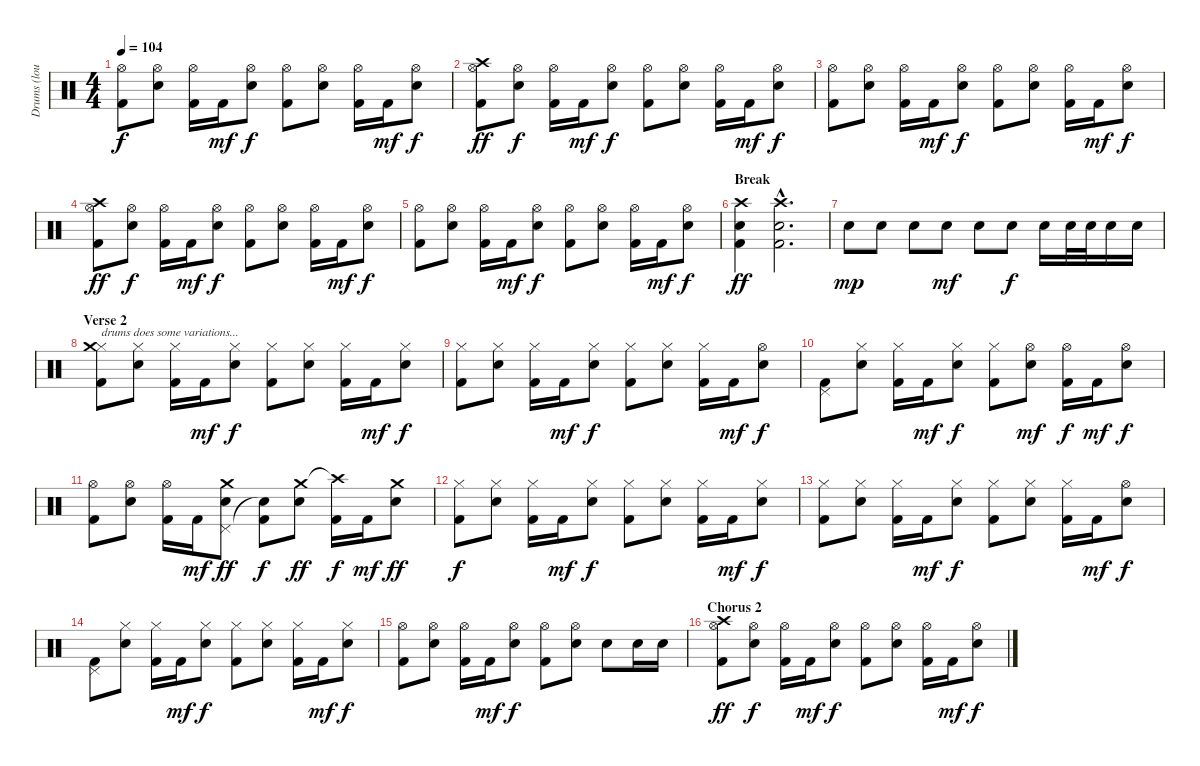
\track ("Drums (loud!)" "Drums (lou") {instrument percussion}
\staff {score}
\articulation defaults
\ts (4 4)
\tempo 104
\clef neutral
\ks c
("Hi-Hat (open)" "Kick (hit) 2").8{dy f} ("Hi-Hat (open)" "Snare (hit) 2").8 ("Hi-Hat (open)" "Kick (hit) 2").16 "Kick (hit) 2".16{dy mf} ("Hi-Hat (open)" "Snare (hit) 2").8{dy f} ("Hi-Hat (open)" "Kick (hit) 2").8 ("Hi-Hat (open)" "Snare (hit) 2").8 ("Hi-Hat (open)" "Kick (hit) 2").16 "Kick (hit) 2".16{dy mf} ("Hi-Hat (open)" "Snare (hit) 2").8{dy f} |
("Hi-Hat (open)" "Crash high (hit)" "Kick (hit) 2").8{dy ff} ("Hi-Hat (open)" "Snare (hit) 2").8{dy f} ("Hi-Hat (open)" "Kick (hit) 2").16 "Kick (hit) 2".16{dy mf} ("Hi-Hat (open)" "Snare (hit) 2").8{dy f} ("Hi-Hat (open)" "Kick (hit) 2").8 ("Hi-Hat (open)" "Snare (hit) 2").8 ("Hi-Hat (open)" "Kick (hit) 2").16 "Kick (hit) 2".16{dy mf} ("Hi-Hat (open)" "Snare (hit) 2").8{dy f} |
("Hi-Hat (open)" "Kick (hit) 2").8 ("Hi-Hat (open)" "Snare (hit) 2").8 ("Hi-Hat (open)" "Kick (hit) 2").16 "Kick (hit) 2".16{dy mf} ("Hi-Hat (open)" "Snare (hit) 2").8{dy f} ("Hi-Hat (open)" "Kick (hit) 2").8 ("Hi-Hat (open)" "Snare (hit) 2").8 ("Hi-Hat (open)" "Kick (hit) 2").16 "Kick (hit) 2".16{dy mf} ("Hi-Hat (open)" "Snare (hit) 2").8{dy f} |
("Hi-Hat (open)" "Crash high (hit)" "Kick (hit) 2").8{dy ff} ("Hi-Hat (open)" "Snare (hit) 2").8{dy f} ("Hi-Hat (open)" "Kick (hit) 2").16 "Kick (hit) 2".16{dy mf} ("Hi-Hat (open)" "Snare (hit) 2").8{dy f} ("Hi-Hat (open)" "Kick (hit) 2").8 ("Hi-Hat (open)" "Snare (hit) 2").8 ("Hi-Hat (open)" "Kick (hit) 2").16 "Kick (hit) 2".16{dy mf} ("Hi-Hat (open)" "Snare (hit) 2").8{dy f} |
("Hi-Hat (open)" "Kick (hit) 2").8 ("Hi-Hat (open)" "Snare (hit) 2").8 ("Hi-Hat (open)" "Kick (hit) 2").16 "Kick (hit) 2".16{dy mf} ("Hi-Hat (open)" "Snare (hit) 2").8{dy f} ("Hi-Hat (open)" "Kick (hit) 2").8 ("Hi-Hat (open)" "Snare (hit) 2").8 ("Hi-Hat (open)" "Kick (hit) 2").16 "Kick (hit) 2".16{dy mf} ("Hi-Hat (open)" "Snare (hit) 2").8{dy f} |
\section ("" "Break")
("Crash high (hit)" "Snare (hit) 2" "Kick (hit) 2").4{dy ff} ("Crash high (hit)"{hac} "Snare (hit) 2"{hac} "Kick (hit) 2"{hac}).2{d} |
"Snare (hit) 2".8{dy mp} "Snare (hit) 2".8 "Snare (hit) 2".8 "Snare (hit) 2".8{dy mf} "Snare (hit) 2".8 "Snare (hit) 2".8{dy f} "Snare (hit) 2".16 "Snare (hit) 2".32 "Snare (hit) 2".32 "Snare (hit) 2".16 "Snare (hit) 2".16 |
\section ("" "Verse 2")
("Hi-Hat (closed)" "Crash medium (hit)" "Kick (hit) 2").8{txt "drums does some variations..."} ("Hi-Hat (closed)" "Snare (hit) 2").8 ("Hi-Hat (closed)" "Kick (hit) 2").16 "Kick (hit) 2".16{dy mf} ("Hi-Hat (closed)" "Snare (hit) 2").8{dy f} ("Hi-Hat (closed)" "Kick (hit) 2").8 ("Hi-Hat (closed)" "Snare (hit) 2").8 ("Hi-Hat (closed)" "Kick (hit) 2").16 "Kick (hit) 2".16{dy mf} ("Hi-Hat (closed)" "Snare (hit) 2").8{dy f} |
("Hi-Hat (closed)" "Kick (hit) 2").8 ("Hi-Hat (closed)" "Snare (hit) 2").8 ("Hi-Hat (closed)" "Kick (hit) 2").16 "Kick (hit) 2".16{dy mf} ("Hi-Hat (closed)" "Snare (hit) 2").8{dy f} ("Hi-Hat (closed)" "Kick (hit) 2").8 ("Hi-Hat (closed)" "Snare (hit) 2").8 ("Hi-Hat (closed)" "Kick (hit) 2").16 "Kick (hit) 2".16{dy mf} ("Hi-Hat (open)" "Snare (hit) 2").8{dy f} |
("Pedal Hi-Hat (hit)" "Kick (hit) 2").8 ("Hi-Hat (closed)" "Snare (hit) 2").8 ("Hi-Hat (closed)" "Kick (hit) 2").16 "Kick (hit) 2".16{dy mf} ("Hi-Hat (closed)" "Snare (hit) 2").8{dy f} ("Hi-Hat (closed)" "Kick (hit) 2").8 ("Hi-Hat (open)" "Snare (hit) 2").8{dy mf} ("Hi-Hat (open)" "Kick (hit) 2").16{dy f} "Kick (hit) 2".16{dy mf} ("Hi-Hat (open)" "Snare (hit) 2").8{dy f} |
("Hi-Hat (open)" "Kick (hit) 2").8 ("Hi-Hat (open)" "Snare (hit) 2").8 ("Hi-Hat (open)" "Kick (hit) 2").16 "Kick (hit) 2".16{dy mf} ("Pedal Hi-Hat (hit)" "Crash medium (hit)" "Snare (hit) 2").8{dy ff} ("Snare (hit)"{t} "Kick (hit) 2").8{dy f} ("Crash medium (hit)" "Snare (hit) 2").8{dy ff} ("Crash high (hit)"{t} "Kick (hit) 2").16{dy f} "Kick (hit) 2".16{dy mf} ("Crash medium (hit)" "Snare (hit) 2").8{dy ff} |
("Hi-Hat (closed)" "Kick (hit) 2").8{dy f} ("Hi-Hat (closed)" "Snare (hit) 2").8 ("Hi-Hat (closed)" "Kick (hit) 2").16 "Kick (hit) 2".16{dy mf} ("Hi-Hat (closed)" "Snare (hit) 2").8{dy f} ("Hi-Hat (closed)" "Kick (hit) 2").8 ("Hi-Hat (closed)" "Snare (hit) 2").8 ("Hi-Hat (closed)" "Kick (hit) 2").16 "Kick (hit) 2".16{dy mf} ("Hi-Hat (closed)" "Snare (hit) 2").8{dy f} |
("Hi-Hat (closed)" "Kick (hit) 2").8 ("Hi-Hat (closed)" "Snare (hit) 2").8 ("Hi-Hat (closed)" "Kick (hit) 2").16 "Kick (hit) 2".16{dy mf} ("Hi-Hat (closed)" "Snare (hit) 2").8{dy f} ("Hi-Hat (closed)" "Kick (hit) 2").8 ("Hi-Hat (closed)" "Snare (hit) 2").8 ("Hi-Hat (closed)" "Kick (hit) 2").16 "Kick (hit) 2".16{dy mf} ("Hi-Hat (open)" "Snare (hit) 2").8{dy f} |
("Pedal Hi-Hat (hit)" "Kick (hit) 2").8 ("Hi-Hat (closed)" "Snare (hit) 2").8 ("Hi-Hat (closed)" "Kick (hit) 2").16 "Kick (hit) 2".16{dy mf} ("Hi-Hat (closed)" "Snare (hit) 2").8{dy f} ("Hi-Hat (closed)" "Kick (hit) 2").8 ("Hi-Hat (closed)" "Snare (hit) 2").8 ("Hi-Hat (closed)" "Kick (hit) 2").16 "Kick (hit) 2".16{dy mf} ("Hi-Hat (closed)" "Snare (hit) 2").8{dy f} |
("Hi-Hat (open)" "Kick (hit) 2").8 ("Hi-Hat (open)" "Snare (hit) 2").8 ("Hi-Hat (open)" "Kick (hit) 2").16 "Kick (hit) 2".16{dy mf} ("Hi-Hat (open)" "Snare (hit) 2").8{dy f} ("Hi-Hat (open)" "Kick (hit) 2").8 ("Hi-Hat (open)" "Snare (hit) 2").8 "Snare (hit) 2".8 "Snare (hit) 2".16 "Snare (hit) 2".16 |
\section ("" "Chorus 2")
("Hi-Hat (open)" "Crash high (hit)" "Kick (hit) 2").8{dy ff} ("Hi-Hat (open)" "Snare (hit) 2").8{dy f} ("Hi-Hat (open)" "Kick (hit) 2").16 "Kick (hit) 2".16{dy mf} ("Hi-Hat (open)" "Snare (hit) 2").8{dy f} ("Hi-Hat (open)" "Kick (hit) 2").8 ("Hi-Hat (open)" "Snare (hit) 2").8 ("Hi-Hat (open)" "Kick (hit) 2").16 "Kick (hit) 2".16{dy mf} ("Hi-Hat (open)" "Snare (hit) 2").8{dy f}
